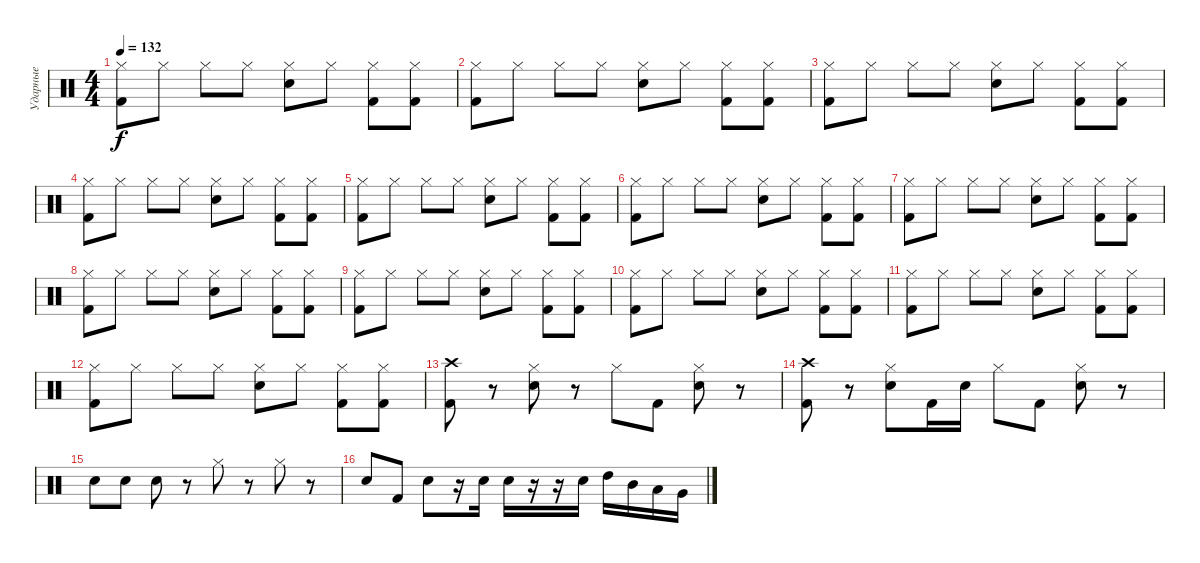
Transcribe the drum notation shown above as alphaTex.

\track ("Ударные" "Ударные") {instrument percussion}
\staff {score}
\articulation defaults
\ts (4 4)
\tempo 132
\clef neutral
\ks c
("Kick (hit) 2" "Hi-Hat (closed)").8{dy f} "Hi-Hat (closed)".8 "Hi-Hat (closed)".8 "Hi-Hat (closed)".8 ("Electric Snare (hit)" "Hi-Hat (closed)").8 "Hi-Hat (closed)".8 ("Kick (hit) 2" "Hi-Hat (closed)").8 ("Kick (hit) 2" "Hi-Hat (closed)").8 |
("Kick (hit) 2" "Hi-Hat (closed)").8 "Hi-Hat (closed)".8 "Hi-Hat (closed)".8 "Hi-Hat (closed)".8 ("Electric Snare (hit)" "Hi-Hat (closed)").8 "Hi-Hat (closed)".8 ("Kick (hit) 2" "Hi-Hat (closed)").8 ("Kick (hit) 2" "Hi-Hat (closed)").8 |
("Kick (hit) 2" "Hi-Hat (closed)").8 "Hi-Hat (closed)".8 "Hi-Hat (closed)".8 "Hi-Hat (closed)".8 ("Electric Snare (hit)" "Hi-Hat (closed)").8 "Hi-Hat (closed)".8 ("Kick (hit) 2" "Hi-Hat (closed)").8 ("Kick (hit) 2" "Hi-Hat (closed)").8 |
("Kick (hit) 2" "Hi-Hat (closed)").8 "Hi-Hat (closed)".8 "Hi-Hat (closed)".8 "Hi-Hat (closed)".8 ("Electric Snare (hit)" "Hi-Hat (closed)").8 "Hi-Hat (closed)".8 ("Kick (hit) 2" "Hi-Hat (closed)").8 ("Kick (hit) 2" "Hi-Hat (closed)").8 |
("Kick (hit) 2" "Hi-Hat (closed)").8 "Hi-Hat (closed)".8 "Hi-Hat (closed)".8 "Hi-Hat (closed)".8 ("Electric Snare (hit)" "Hi-Hat (closed)").8 "Hi-Hat (closed)".8 ("Kick (hit) 2" "Hi-Hat (closed)").8 ("Kick (hit) 2" "Hi-Hat (closed)").8 |
("Kick (hit) 2" "Hi-Hat (closed)").8 "Hi-Hat (closed)".8 "Hi-Hat (closed)".8 "Hi-Hat (closed)".8 ("Electric Snare (hit)" "Hi-Hat (closed)").8 "Hi-Hat (closed)".8 ("Kick (hit) 2" "Hi-Hat (closed)").8 ("Kick (hit) 2" "Hi-Hat (closed)").8 |
("Kick (hit) 2" "Hi-Hat (closed)").8 "Hi-Hat (closed)".8 "Hi-Hat (closed)".8 "Hi-Hat (closed)".8 ("Electric Snare (hit)" "Hi-Hat (closed)").8 "Hi-Hat (closed)".8 ("Kick (hit) 2" "Hi-Hat (closed)").8 ("Kick (hit) 2" "Hi-Hat (closed)").8 |
("Kick (hit) 2" "Hi-Hat (closed)").8 "Hi-Hat (closed)".8 "Hi-Hat (closed)".8 "Hi-Hat (closed)".8 ("Electric Snare (hit)" "Hi-Hat (closed)").8 "Hi-Hat (closed)".8 ("Kick (hit) 2" "Hi-Hat (closed)").8 ("Kick (hit) 2" "Hi-Hat (closed)").8 |
("Kick (hit) 2" "Hi-Hat (closed)").8 "Hi-Hat (closed)".8 "Hi-Hat (closed)".8 "Hi-Hat (closed)".8 ("Electric Snare (hit)" "Hi-Hat (closed)").8 "Hi-Hat (closed)".8 ("Kick (hit) 2" "Hi-Hat (closed)").8 ("Kick (hit) 2" "Hi-Hat (closed)").8 |
("Kick (hit) 2" "Hi-Hat (closed)").8 "Hi-Hat (closed)".8 "Hi-Hat (closed)".8 "Hi-Hat (closed)".8 ("Electric Snare (hit)" "Hi-Hat (closed)").8 "Hi-Hat (closed)".8 ("Kick (hit) 2" "Hi-Hat (closed)").8 ("Kick (hit) 2" "Hi-Hat (closed)").8 |
("Kick (hit) 2" "Hi-Hat (closed)").8 "Hi-Hat (closed)".8 "Hi-Hat (closed)".8 "Hi-Hat (closed)".8 ("Electric Snare (hit)" "Hi-Hat (closed)").8 "Hi-Hat (closed)".8 ("Kick (hit) 2" "Hi-Hat (closed)").8 ("Kick (hit) 2" "Hi-Hat (closed)").8 |
("Kick (hit) 2" "Hi-Hat (closed)").8 "Hi-Hat (closed)".8 "Hi-Hat (closed)".8 "Hi-Hat (closed)".8 ("Electric Snare (hit)" "Hi-Hat (closed)").8 "Hi-Hat (closed)".8 ("Kick (hit) 2" "Hi-Hat (closed)").8 ("Kick (hit) 2" "Hi-Hat (closed)").8 |
("Kick (hit) 2" "Crash high (hit)").8 r.8 ("Electric Snare (hit)" "Hi-Hat (closed)").8 r.8 "Hi-Hat (closed)".8 "Kick (hit) 2".8 ("Electric Snare (hit)" "Hi-Hat (closed)").8 r.8 |
("Kick (hit) 2" "Crash high (hit)").8 r.8 ("Electric Snare (hit)" "Hi-Hat (closed)").8 "Kick (hit) 2".16 "Electric Snare (hit)".16 "Hi-Hat (closed)".8 "Kick (hit) 2".8 ("Electric Snare (hit)" "Hi-Hat (closed)").8 r.8 |
"Electric Snare (hit)".8 "Electric Snare (hit)".8 "Electric Snare (hit)".8 r.8 "Hi-Hat (closed)".8 r.8 "Hi-Hat (closed)".8 r.8 |
"Electric Snare (hit)".8 "Kick (hit) 2".8 "Electric Snare (hit)".8 r.16 "Electric Snare (hit)".16 "Electric Snare (hit)".16 r.16 r.16 "Electric Snare (hit)".16 "High Tom (hit)".16 "Mid Tom (hit)".16 "Low Tom (hit)".16 "Very Low Tom (hit)".16
